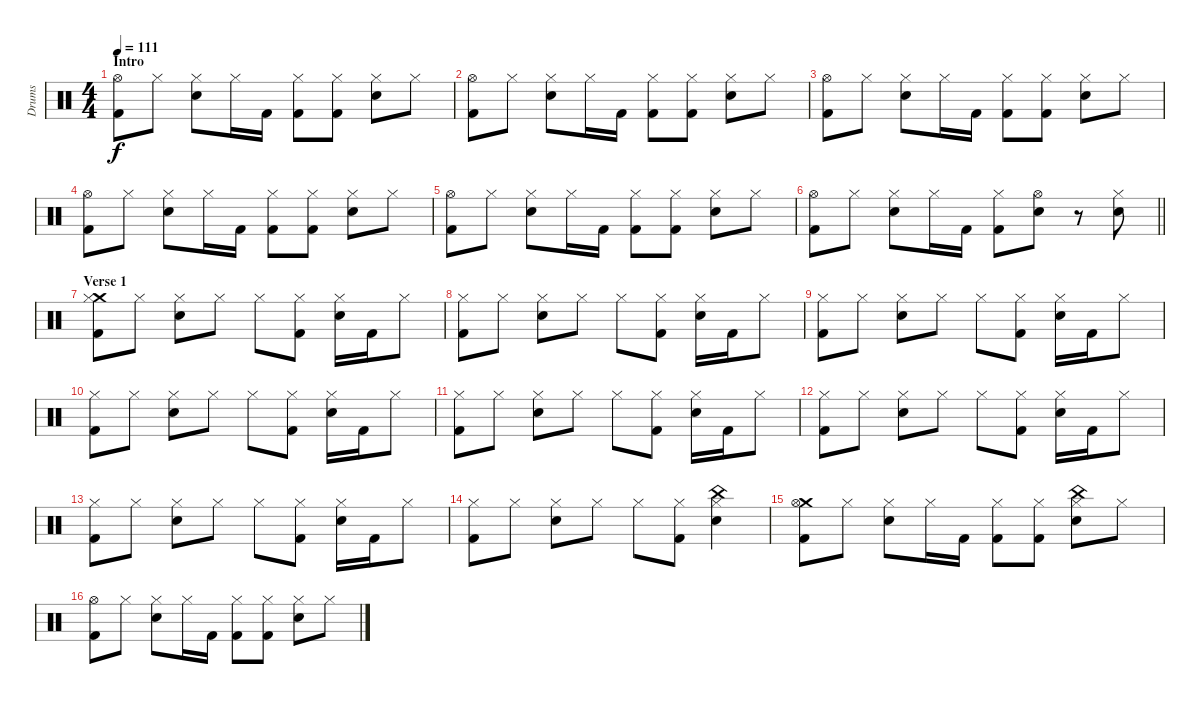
\track ("Drums" "Drums") {instrument percussion}
\staff {score}
\articulation defaults
\ts (4 4)
\section ("" "Intro")
\tempo 111
\clef neutral
\ks c
("Hi-Hat (open)" "Kick (hit) 2").8{dy f} "Hi-Hat (closed)".8 ("Hi-Hat (closed)" "Snare (hit) 2").8 "Hi-Hat (closed)".16 "Kick (hit) 2".16 ("Hi-Hat (closed)" "Kick (hit) 2").8 ("Hi-Hat (closed)" "Kick (hit) 2").8 ("Hi-Hat (closed)" "Snare (hit) 2").8 "Hi-Hat (closed)".8 |
("Hi-Hat (open)" "Kick (hit) 2").8 "Hi-Hat (closed)".8 ("Hi-Hat (closed)" "Snare (hit) 2").8 "Hi-Hat (closed)".16 "Kick (hit) 2".16 ("Hi-Hat (closed)" "Kick (hit) 2").8 ("Hi-Hat (closed)" "Kick (hit) 2").8 ("Hi-Hat (closed)" "Snare (hit) 2").8 "Hi-Hat (closed)".8 |
("Hi-Hat (open)" "Kick (hit) 2").8 "Hi-Hat (closed)".8 ("Hi-Hat (closed)" "Snare (hit) 2").8 "Hi-Hat (closed)".16 "Kick (hit) 2".16 ("Hi-Hat (closed)" "Kick (hit) 2").8 ("Hi-Hat (closed)" "Kick (hit) 2").8 ("Hi-Hat (closed)" "Snare (hit) 2").8 "Hi-Hat (closed)".8 |
("Hi-Hat (open)" "Kick (hit) 2").8 "Hi-Hat (closed)".8 ("Hi-Hat (closed)" "Snare (hit) 2").8 "Hi-Hat (closed)".16 "Kick (hit) 2".16 ("Hi-Hat (closed)" "Kick (hit) 2").8 ("Hi-Hat (closed)" "Kick (hit) 2").8 ("Hi-Hat (closed)" "Snare (hit) 2").8 "Hi-Hat (closed)".8 |
("Hi-Hat (open)" "Kick (hit) 2").8 "Hi-Hat (closed)".8 ("Hi-Hat (closed)" "Snare (hit) 2").8 "Hi-Hat (closed)".16 "Kick (hit) 2".16 ("Hi-Hat (closed)" "Kick (hit) 2").8 ("Hi-Hat (closed)" "Kick (hit) 2").8 ("Hi-Hat (closed)" "Snare (hit) 2").8 "Hi-Hat (closed)".8 |
\barLineRight lightlight
("Hi-Hat (open)" "Kick (hit) 2").8 "Hi-Hat (closed)".8 ("Hi-Hat (closed)" "Snare (hit) 2").8 "Hi-Hat (closed)".16 "Kick (hit) 2".16 ("Hi-Hat (closed)" "Kick (hit) 2").8 ("Hi-Hat (open)" "Snare (hit) 2").8 r.8 ("Snare (hit) 2" "Hi-Hat (closed)").8 |
\section ("" "Verse 1")
("Crash medium (hit)" "Hi-Hat (closed)" "Kick (hit) 2").8 "Hi-Hat (closed)".8 ("Hi-Hat (closed)" "Snare (hit) 2").8 "Hi-Hat (closed)".8 "Hi-Hat (closed)".8 ("Hi-Hat (closed)" "Kick (hit) 2").8 ("Hi-Hat (closed)" "Snare (hit) 2").16 "Kick (hit) 2".16 "Hi-Hat (closed)".8 |
("Hi-Hat (closed)" "Kick (hit) 2").8 "Hi-Hat (closed)".8 ("Hi-Hat (closed)" "Snare (hit) 2").8 "Hi-Hat (closed)".8 "Hi-Hat (closed)".8 ("Hi-Hat (closed)" "Kick (hit) 2").8 ("Hi-Hat (closed)" "Snare (hit) 2").16 "Kick (hit) 2".16 "Hi-Hat (closed)".8 |
("Hi-Hat (closed)" "Kick (hit) 2").8 "Hi-Hat (closed)".8 ("Hi-Hat (closed)" "Snare (hit) 2").8 "Hi-Hat (closed)".8 "Hi-Hat (closed)".8 ("Hi-Hat (closed)" "Kick (hit) 2").8 ("Hi-Hat (closed)" "Snare (hit) 2").16 "Kick (hit) 2".16 "Hi-Hat (closed)".8 |
("Hi-Hat (closed)" "Kick (hit) 2").8 "Hi-Hat (closed)".8 ("Hi-Hat (closed)" "Snare (hit) 2").8 "Hi-Hat (closed)".8 "Hi-Hat (closed)".8 ("Hi-Hat (closed)" "Kick (hit) 2").8 ("Hi-Hat (closed)" "Snare (hit) 2").16 "Kick (hit) 2".16 "Hi-Hat (closed)".8 |
("Hi-Hat (closed)" "Kick (hit) 2").8 "Hi-Hat (closed)".8 ("Hi-Hat (closed)" "Snare (hit) 2").8 "Hi-Hat (closed)".8 "Hi-Hat (closed)".8 ("Hi-Hat (closed)" "Kick (hit) 2").8 ("Hi-Hat (closed)" "Snare (hit) 2").16 "Kick (hit) 2".16 "Hi-Hat (closed)".8 |
("Hi-Hat (closed)" "Kick (hit) 2").8 "Hi-Hat (closed)".8 ("Hi-Hat (closed)" "Snare (hit) 2").8 "Hi-Hat (closed)".8 "Hi-Hat (closed)".8 ("Hi-Hat (closed)" "Kick (hit) 2").8 ("Hi-Hat (closed)" "Snare (hit) 2").16 "Kick (hit) 2".16 "Hi-Hat (closed)".8 |
("Hi-Hat (closed)" "Kick (hit) 2").8 "Hi-Hat (closed)".8 ("Hi-Hat (closed)" "Snare (hit) 2").8 "Hi-Hat (closed)".8 "Hi-Hat (closed)".8 ("Hi-Hat (closed)" "Kick (hit) 2").8 ("Hi-Hat (closed)" "Snare (hit) 2").16 "Kick (hit) 2".16 "Hi-Hat (closed)".8 |
("Hi-Hat (closed)" "Kick (hit) 2").8 "Hi-Hat (closed)".8 ("Hi-Hat (closed)" "Snare (hit) 2").8 "Hi-Hat (closed)".8 "Hi-Hat (closed)".8 ("Hi-Hat (closed)" "Kick (hit) 2").8 ("China (hit)" "Hi-Hat (closed)" "Snare (hit) 2").4 |
("Crash medium (hit)" "Hi-Hat (open)" "Kick (hit) 2").8 "Hi-Hat (closed)".8 ("Hi-Hat (closed)" "Snare (hit) 2").8 "Hi-Hat (closed)".16 "Kick (hit) 2".16 ("Hi-Hat (closed)" "Kick (hit) 2").8 ("Hi-Hat (closed)" "Kick (hit) 2").8 ("China (hit)" "Hi-Hat (closed)" "Snare (hit) 2").8 "Hi-Hat (closed)".8 |
("Hi-Hat (open)" "Kick (hit) 2").8 "Hi-Hat (closed)".8 ("Hi-Hat (closed)" "Snare (hit) 2").8 "Hi-Hat (closed)".16 "Kick (hit) 2".16 ("Hi-Hat (closed)" "Kick (hit) 2").8 ("Hi-Hat (closed)" "Kick (hit) 2").8 ("Hi-Hat (closed)" "Snare (hit) 2").8 "Hi-Hat (closed)".8
